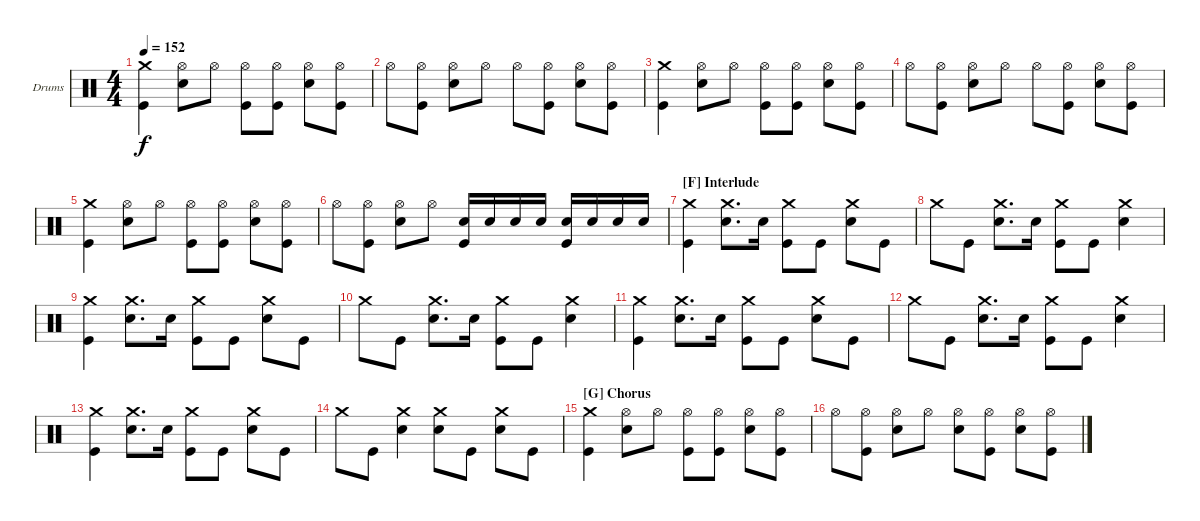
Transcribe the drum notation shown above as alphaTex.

\defaultSystemsLayout 4
\bracketExtendMode groupsimilarinstruments
\firstSystemTrackNameOrientation horizontal
\otherSystemsTrackNameOrientation horizontal
\track ("Drumkit" "Drums") {instrument percussion}
\staff {score}
\articulation defaults
\ts (4 4)
\tempo 152
\clef neutral
\scale
1.02648
\ks c
("Crash medium (hit)" "Kick (hit)").4{dy f} ("Hi-Hat (open)" "Snare (hit) 2").8 "Hi-Hat (open)".8 ("Hi-Hat (open)" "Kick (hit)").8 ("Hi-Hat (open)" "Kick (hit)").8 ("Hi-Hat (open)" "Snare (hit) 2").8 ("Hi-Hat (open)" "Kick (hit)").8 |
\scale
0.973518 "Hi-Hat (open)".8 ("Hi-Hat (open)" "Kick (hit)").8 ("Hi-Hat (open)" "Snare (hit) 2").8 "Hi-Hat (open)".8 "Hi-Hat (open)".8 ("Hi-Hat (open)" "Kick (hit)").8 ("Hi-Hat (open)" "Snare (hit) 2").8 ("Hi-Hat (open)" "Kick (hit)").8 |
\scale
1.02648 ("Crash medium (hit)" "Kick (hit)").4 ("Hi-Hat (open)" "Snare (hit) 2").8 "Hi-Hat (open)".8 ("Hi-Hat (open)" "Kick (hit)").8 ("Hi-Hat (open)" "Kick (hit)").8 ("Hi-Hat (open)" "Snare (hit) 2").8 ("Hi-Hat (open)" "Kick (hit)").8 |
\scale
0.973518 "Hi-Hat (open)".8 ("Hi-Hat (open)" "Kick (hit)").8 ("Hi-Hat (open)" "Snare (hit) 2").8 "Hi-Hat (open)".8 "Hi-Hat (open)".8 ("Hi-Hat (open)" "Kick (hit)").8 ("Hi-Hat (open)" "Snare (hit) 2").8 ("Hi-Hat (open)" "Kick (hit)").8 |
\scale
1.02648 ("Crash medium (hit)" "Kick (hit)").4 ("Hi-Hat (open)" "Snare (hit) 2").8 "Hi-Hat (open)".8 ("Hi-Hat (open)" "Kick (hit)").8 ("Hi-Hat (open)" "Kick (hit)").8 ("Hi-Hat (open)" "Snare (hit) 2").8 ("Hi-Hat (open)" "Kick (hit)").8 |
\scale
0.973518 "Hi-Hat (open)".8 ("Hi-Hat (open)" "Kick (hit)").8 ("Hi-Hat (open)" "Snare (hit) 2").8 "Hi-Hat (open)".8 ("Snare (hit) 2" "Kick (hit)").16 "Snare (hit) 2".16 "Snare (hit) 2".16 "Snare (hit) 2".16 ("Snare (hit) 2" "Kick (hit)").16 "Snare (hit) 2".16 "Snare (hit) 2".16 "Snare (hit) 2".16 |
\section ("F" "Interlude")
\scale
1.02648 ("Crash medium (hit)" "Kick (hit)").4 ("Crash medium (hit)" "Snare (hit) 2").8{d} "Snare (hit) 2".16 ("Crash medium (hit)" "Kick (hit)").8 "Kick (hit)".8 ("Crash medium (hit)" "Snare (hit) 2").8 "Kick (hit)".8 |
\scale
0.973518 "Crash medium (hit)".8 "Kick (hit)".8 ("Crash medium (hit)" "Snare (hit) 2").8{d} "Snare (hit) 2".16 ("Crash medium (hit)" "Kick (hit)").8 "Kick (hit)".8 ("Crash medium (hit)" "Snare (hit) 2").4 |
\scale
1.02648 ("Crash medium (hit)" "Kick (hit)").4 ("Crash medium (hit)" "Snare (hit) 2").8{d} "Snare (hit) 2".16 ("Crash medium (hit)" "Kick (hit)").8 "Kick (hit)".8 ("Crash medium (hit)" "Snare (hit) 2").8 "Kick (hit)".8 |
\scale
0.973518 "Crash medium (hit)".8 "Kick (hit)".8 ("Crash medium (hit)" "Snare (hit) 2").8{d} "Snare (hit) 2".16 ("Crash medium (hit)" "Kick (hit)").8 "Kick (hit)".8 ("Crash medium (hit)" "Snare (hit) 2").4 |
\scale
1.02648 ("Crash medium (hit)" "Kick (hit)").4 ("Crash medium (hit)" "Snare (hit) 2").8{d} "Snare (hit) 2".16 ("Crash medium (hit)" "Kick (hit)").8 "Kick (hit)".8 ("Crash medium (hit)" "Snare (hit) 2").8 "Kick (hit)".8 |
\scale
0.973518 "Crash medium (hit)".8 "Kick (hit)".8 ("Crash medium (hit)" "Snare (hit) 2").8{d} "Snare (hit) 2".16 ("Crash medium (hit)" "Kick (hit)").8 "Kick (hit)".8 ("Crash medium (hit)" "Snare (hit) 2").4 |
\scale
1.02648 ("Crash medium (hit)" "Kick (hit)").4 ("Crash medium (hit)" "Snare (hit) 2").8{d} "Snare (hit) 2".16 ("Crash medium (hit)" "Kick (hit)").8 "Kick (hit)".8 ("Crash medium (hit)" "Snare (hit) 2").8 "Kick (hit)".8 |
\scale
0.973518 "Crash medium (hit)".8 "Kick (hit)".8 ("Crash medium (hit)" "Snare (hit) 2").4 ("Crash medium (hit)" "Snare (hit) 2").8 "Kick (hit)".8 ("Crash medium (hit)" "Snare (hit) 2").8 "Kick (hit)".8 |
\section ("G" "Chorus")
\scale
1.02648 ("Crash medium (hit)" "Kick (hit)").4 ("Hi-Hat (open)" "Snare (hit) 2").8 "Hi-Hat (open)".8 ("Hi-Hat (open)" "Kick (hit)").8 ("Hi-Hat (open)" "Kick (hit)").8 ("Hi-Hat (open)" "Snare (hit) 2").8 ("Hi-Hat (open)" "Kick (hit)").8 |
\scale
0.973518 "Hi-Hat (open)".8 ("Hi-Hat (open)" "Kick (hit)").8 ("Hi-Hat (open)" "Snare (hit) 2").8 "Hi-Hat (open)".8 ("Hi-Hat (open)" "Snare (hit) 2").8 ("Hi-Hat (open)" "Kick (hit)").8 ("Hi-Hat (open)" "Snare (hit) 2").8 ("Hi-Hat (open)" "Kick (hit)").8
